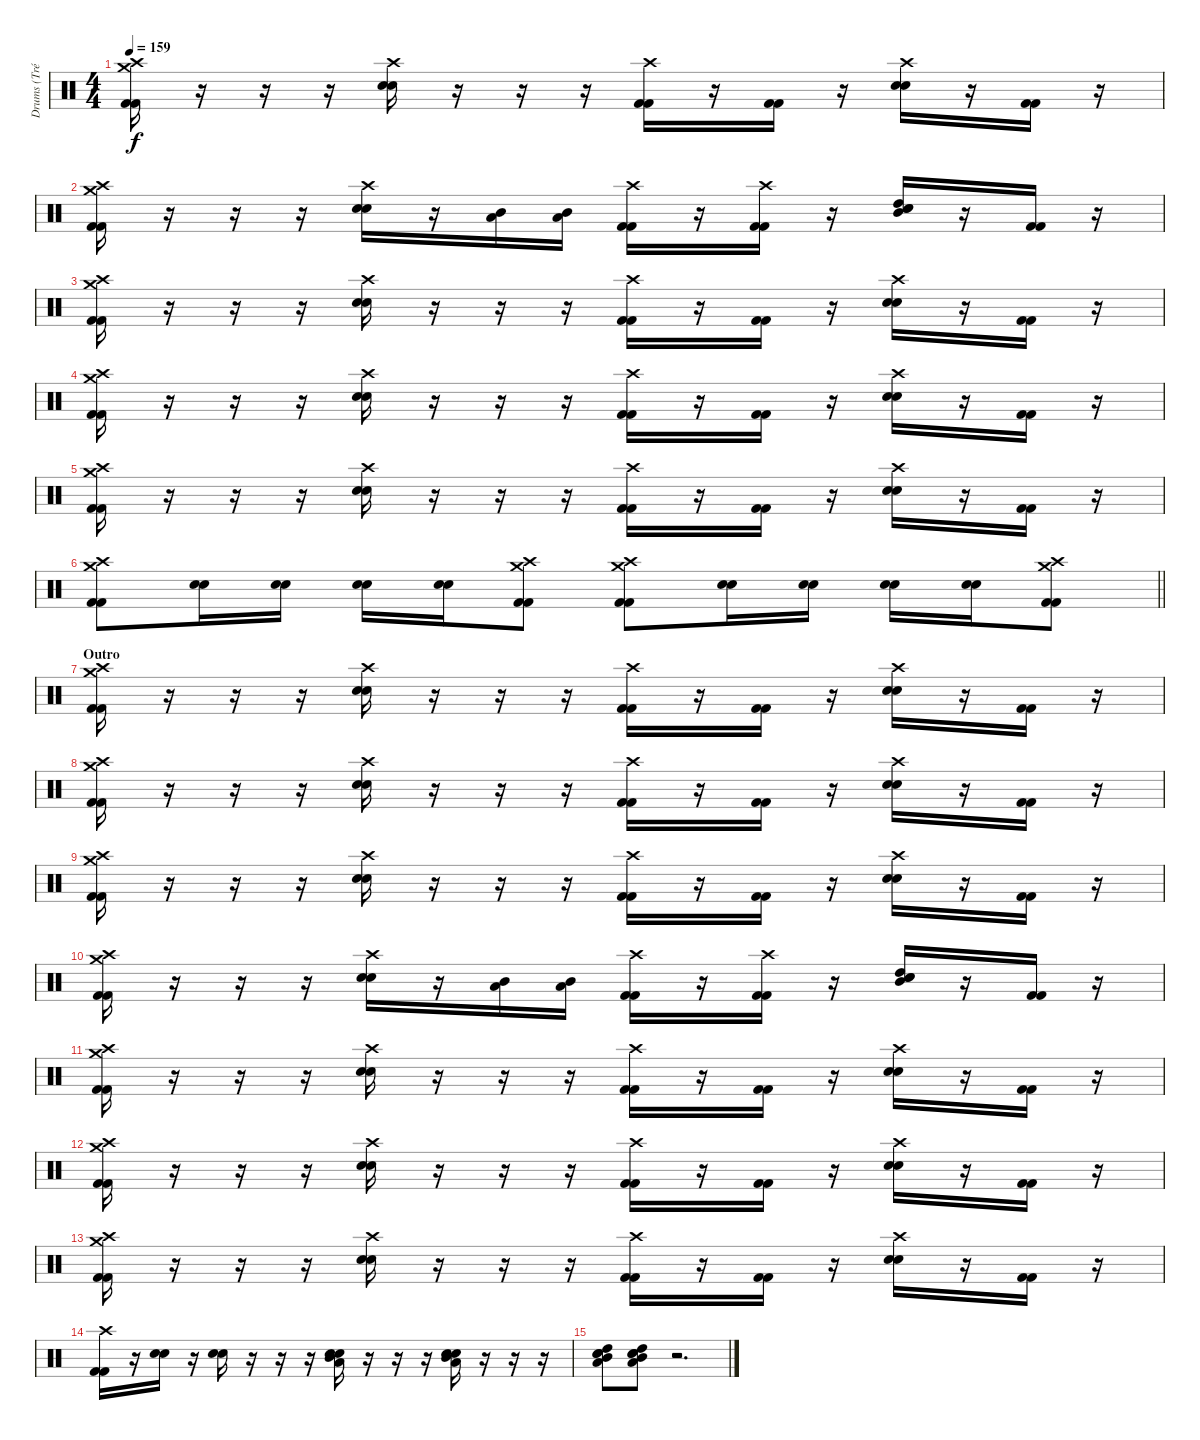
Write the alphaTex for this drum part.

\track ("Drums (Tré Cool)" "Drums (Tré") {instrument percussion}
\staff {score}
\articulation defaults
\ts (4 4)
\tempo 159
\clef neutral
\ks c
("Crash high (hit)" "Crash medium (hit)" "Kick (hit) 2" "Kick (hit) 2").16{dy f} r.16 r.16 r.16 ("Crash high (hit)" "Snare (hit) 2" "Snare (hit) 2").16 r.16 r.16 r.16 ("Crash high (hit)" "Kick (hit) 2" "Kick (hit) 2").16 r.16 ("Kick (hit) 2" "Kick (hit) 2").16 r.16 ("Crash high (hit)" "Snare (hit) 2" "Snare (hit) 2").16 r.16 ("Kick (hit) 2" "Kick (hit) 2").16 r.16 |
("Crash high (hit)" "Crash medium (hit)" "Kick (hit) 2" "Kick (hit) 2").16 r.16 r.16 r.16 ("Crash high (hit)" "Snare (hit) 2" "Snare (hit) 2").16 r.16 ("Mid Tom (hit)" "Low Tom (hit)").16 ("Mid Tom (hit)" "Low Tom (hit)").16 ("Crash high (hit)" "Kick (hit) 2" "Kick (hit) 2").16 r.16 ("Crash high (hit)" "Kick (hit) 2" "Kick (hit) 2").16 r.16 ("Mid Tom (hit)" "High Tom (hit)" "Snare (hit) 2" "Snare (hit) 2").16 r.16 ("Kick (hit) 2" "Kick (hit) 2").16 r.16 |
("Crash high (hit)" "Crash medium (hit)" "Kick (hit) 2" "Kick (hit) 2").16 r.16 r.16 r.16 ("Crash high (hit)" "Snare (hit) 2" "Snare (hit) 2").16 r.16 r.16 r.16 ("Crash high (hit)" "Kick (hit) 2" "Kick (hit) 2").16 r.16 ("Kick (hit) 2" "Kick (hit) 2").16 r.16 ("Crash high (hit)" "Snare (hit) 2" "Snare (hit) 2").16 r.16 ("Kick (hit) 2" "Kick (hit) 2").16 r.16 |
("Crash high (hit)" "Crash medium (hit)" "Kick (hit) 2" "Kick (hit) 2").16 r.16 r.16 r.16 ("Crash high (hit)" "Snare (hit) 2" "Snare (hit) 2").16 r.16 r.16 r.16 ("Crash high (hit)" "Kick (hit) 2" "Kick (hit) 2").16 r.16 ("Kick (hit) 2" "Kick (hit) 2").16 r.16 ("Crash high (hit)" "Snare (hit) 2" "Snare (hit) 2").16 r.16 ("Kick (hit) 2" "Kick (hit) 2").16 r.16 |
("Crash high (hit)" "Crash medium (hit)" "Kick (hit) 2" "Kick (hit) 2").16 r.16 r.16 r.16 ("Crash high (hit)" "Snare (hit) 2" "Snare (hit) 2").16 r.16 r.16 r.16 ("Crash high (hit)" "Kick (hit) 2" "Kick (hit) 2").16 r.16 ("Kick (hit) 2" "Kick (hit) 2").16 r.16 ("Crash high (hit)" "Snare (hit) 2" "Snare (hit) 2").16 r.16 ("Kick (hit) 2" "Kick (hit) 2").16 r.16 |
\barLineRight lightlight
("Crash medium (hit)" "Crash high (hit)" "Kick (hit) 2" "Kick (hit) 2").8 ("Snare (hit) 2" "Snare (hit) 2").16 ("Snare (hit) 2" "Snare (hit) 2").16 ("Snare (hit) 2" "Snare (hit) 2").16 ("Snare (hit) 2" "Snare (hit) 2").16 ("Crash high (hit)" "Crash medium (hit)" "Kick (hit) 2" "Kick (hit) 2").8 ("Crash medium (hit)" "Crash high (hit)" "Kick (hit) 2" "Kick (hit) 2").8 ("Snare (hit) 2" "Snare (hit) 2").16 ("Snare (hit) 2" "Snare (hit) 2").16 ("Snare (hit) 2" "Snare (hit) 2").16 ("Snare (hit) 2" "Snare (hit) 2").16 ("Crash medium (hit)" "Crash high (hit)" "Kick (hit) 2" "Kick (hit) 2").8 |
\section ("" "Outro")
("Crash high (hit)" "Crash medium (hit)" "Kick (hit) 2" "Kick (hit) 2").16 r.16 r.16 r.16 ("Crash high (hit)" "Snare (hit) 2" "Snare (hit) 2").16 r.16 r.16 r.16 ("Crash high (hit)" "Kick (hit) 2" "Kick (hit) 2").16 r.16 ("Kick (hit) 2" "Kick (hit) 2").16 r.16 ("Crash high (hit)" "Snare (hit) 2" "Snare (hit) 2").16 r.16 ("Kick (hit) 2" "Kick (hit) 2").16 r.16 |
("Crash high (hit)" "Crash medium (hit)" "Kick (hit) 2" "Kick (hit) 2").16 r.16 r.16 r.16 ("Crash high (hit)" "Snare (hit) 2" "Snare (hit) 2").16 r.16 r.16 r.16 ("Crash high (hit)" "Kick (hit) 2" "Kick (hit) 2").16 r.16 ("Kick (hit) 2" "Kick (hit) 2").16 r.16 ("Crash high (hit)" "Snare (hit) 2" "Snare (hit) 2").16 r.16 ("Kick (hit) 2" "Kick (hit) 2").16 r.16 |
("Crash high (hit)" "Crash medium (hit)" "Kick (hit) 2" "Kick (hit) 2").16 r.16 r.16 r.16 ("Crash high (hit)" "Snare (hit) 2" "Snare (hit) 2").16 r.16 r.16 r.16 ("Crash high (hit)" "Kick (hit) 2" "Kick (hit) 2").16 r.16 ("Kick (hit) 2" "Kick (hit) 2").16 r.16 ("Crash high (hit)" "Snare (hit) 2" "Snare (hit) 2").16 r.16 ("Kick (hit) 2" "Kick (hit) 2").16 r.16 |
("Crash high (hit)" "Crash medium (hit)" "Kick (hit) 2" "Kick (hit) 2").16 r.16 r.16 r.16 ("Crash high (hit)" "Snare (hit) 2" "Snare (hit) 2").16 r.16 ("Mid Tom (hit)" "Low Tom (hit)").16 ("Mid Tom (hit)" "Low Tom (hit)").16 ("Crash high (hit)" "Kick (hit) 2" "Kick (hit) 2").16 r.16 ("Crash high (hit)" "Kick (hit) 2" "Kick (hit) 2").16 r.16 ("Mid Tom (hit)" "High Tom (hit)" "Snare (hit) 2" "Snare (hit) 2").16 r.16 ("Kick (hit) 2" "Kick (hit) 2").16 r.16 |
("Crash high (hit)" "Crash medium (hit)" "Kick (hit) 2" "Kick (hit) 2").16 r.16 r.16 r.16 ("Crash high (hit)" "Snare (hit) 2" "Snare (hit) 2").16 r.16 r.16 r.16 ("Crash high (hit)" "Kick (hit) 2" "Kick (hit) 2").16 r.16 ("Kick (hit) 2" "Kick (hit) 2").16 r.16 ("Crash high (hit)" "Snare (hit) 2" "Snare (hit) 2").16 r.16 ("Kick (hit) 2" "Kick (hit) 2").16 r.16 |
("Crash high (hit)" "Crash medium (hit)" "Kick (hit) 2" "Kick (hit) 2").16 r.16 r.16 r.16 ("Crash high (hit)" "Snare (hit) 2" "Snare (hit) 2").16 r.16 r.16 r.16 ("Crash high (hit)" "Kick (hit) 2" "Kick (hit) 2").16 r.16 ("Kick (hit) 2" "Kick (hit) 2").16 r.16 ("Crash high (hit)" "Snare (hit) 2" "Snare (hit) 2").16 r.16 ("Kick (hit) 2" "Kick (hit) 2").16 r.16 |
("Crash high (hit)" "Crash medium (hit)" "Kick (hit) 2" "Kick (hit) 2").16 r.16 r.16 r.16 ("Crash high (hit)" "Snare (hit) 2" "Snare (hit) 2").16 r.16 r.16 r.16 ("Crash high (hit)" "Kick (hit) 2" "Kick (hit) 2").16 r.16 ("Kick (hit) 2" "Kick (hit) 2").16 r.16 ("Crash high (hit)" "Snare (hit) 2" "Snare (hit) 2").16 r.16 ("Kick (hit) 2" "Kick (hit) 2").16 r.16 |
("Crash high (hit)" "Kick (hit) 2" "Kick (hit) 2").16 r.16 ("Snare (hit) 2" "Snare (hit) 2").16 r.16 ("Snare (hit) 2" "Snare (hit) 2").16 r.16 r.16 r.16 ("Low Tom (hit)" "Mid Tom (hit)" "Snare (hit) 2" "Snare (hit) 2").16 r.16 r.16 r.16 ("Low Tom (hit)" "Mid Tom (hit)" "Snare (hit) 2" "Snare (hit) 2").16 r.16 r.16 r.16 |
("High Tom (hit)" "Mid Tom (hit)" "Low Tom (hit)" "Snare (hit) 2" "Snare (hit) 2").8 ("High Tom (hit)" "Mid Tom (hit)" "Low Tom (hit)" "Snare (hit) 2" "Snare (hit) 2").8 r.2{d}
